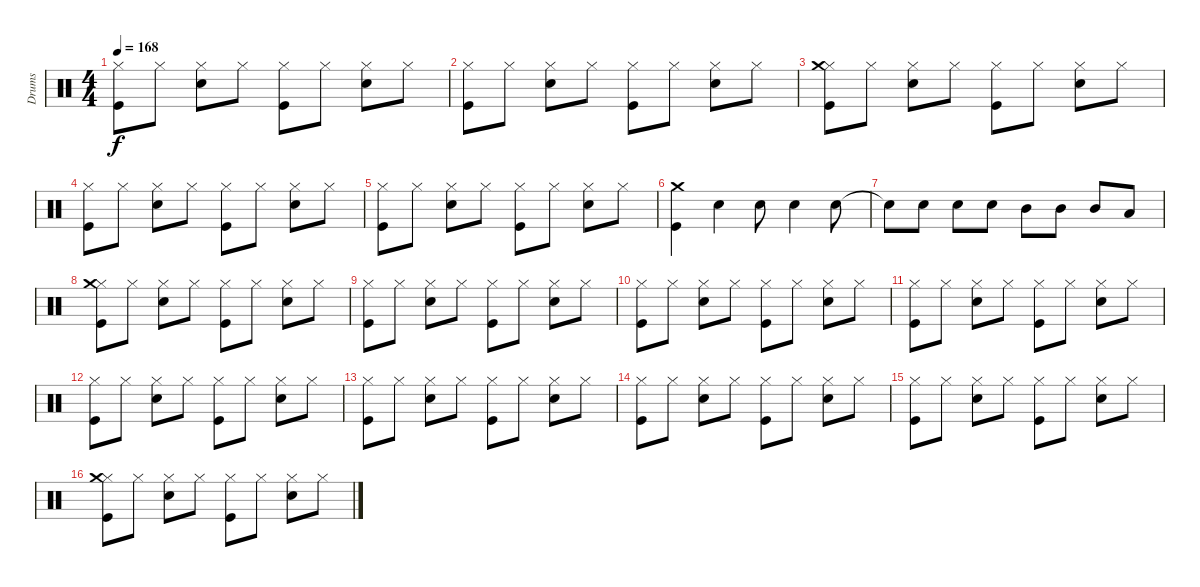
\track ("Drums" "Drums") {instrument percussion}
\staff {score}
\articulation defaults
\ts (4 4)
\tempo 168
\clef neutral
\ks c
("Kick (hit)" "Hi-Hat (closed)").8{dy f} "Hi-Hat (closed)".8 ("Snare (hit) 2" "Hi-Hat (closed)").8 "Hi-Hat (closed)".8 ("Kick (hit)" "Hi-Hat (closed)").8 "Hi-Hat (closed)".8 ("Snare (hit) 2" "Hi-Hat (closed)").8 "Hi-Hat (closed)".8 |
("Kick (hit)" "Hi-Hat (closed)").8 "Hi-Hat (closed)".8 ("Snare (hit) 2" "Hi-Hat (closed)").8 "Hi-Hat (closed)".8 ("Kick (hit)" "Hi-Hat (closed)").8 "Hi-Hat (closed)".8 ("Snare (hit) 2" "Hi-Hat (closed)").8 "Hi-Hat (closed)".8 |
("Kick (hit)" "Hi-Hat (closed)" "Crash medium (hit)").8 "Hi-Hat (closed)".8 ("Snare (hit) 2" "Hi-Hat (closed)").8 "Hi-Hat (closed)".8 ("Kick (hit)" "Hi-Hat (closed)").8 "Hi-Hat (closed)".8 ("Snare (hit) 2" "Hi-Hat (closed)").8 "Hi-Hat (closed)".8 |
("Kick (hit)" "Hi-Hat (closed)").8 "Hi-Hat (closed)".8 ("Snare (hit) 2" "Hi-Hat (closed)").8 "Hi-Hat (closed)".8 ("Kick (hit)" "Hi-Hat (closed)").8 "Hi-Hat (closed)".8 ("Snare (hit) 2" "Hi-Hat (closed)").8 "Hi-Hat (closed)".8 |
("Kick (hit)" "Hi-Hat (closed)").8 "Hi-Hat (closed)".8 ("Snare (hit) 2" "Hi-Hat (closed)").8 "Hi-Hat (closed)".8 ("Kick (hit)" "Hi-Hat (closed)").8 "Hi-Hat (closed)".8 ("Snare (hit) 2" "Hi-Hat (closed)").8 "Hi-Hat (closed)".8 |
("Kick (hit)" "Crash medium (hit)").4 "Snare (hit) 2".4 "Snare (hit) 2".8 "Snare (hit) 2".4 "Snare (hit) 2".8 |
"Snare (hit)"{t}.8 "Snare (hit) 2".8 "Snare (hit) 2".8 "Snare (hit) 2".8 "Mid Tom (hit)".8 "Mid Tom (hit)".8 "Mid Tom (hit)".8 "Low Floor Tom (hit)".8 |
("Kick (hit)" "Hi-Hat (closed)" "Crash medium (hit)").8 "Hi-Hat (closed)".8 ("Snare (hit) 2" "Hi-Hat (closed)").8 "Hi-Hat (closed)".8 ("Kick (hit)" "Hi-Hat (closed)").8 "Hi-Hat (closed)".8 ("Snare (hit) 2" "Hi-Hat (closed)").8 "Hi-Hat (closed)".8 |
("Kick (hit)" "Hi-Hat (closed)").8 "Hi-Hat (closed)".8 ("Snare (hit) 2" "Hi-Hat (closed)").8 "Hi-Hat (closed)".8 ("Kick (hit)" "Hi-Hat (closed)").8 "Hi-Hat (closed)".8 ("Snare (hit) 2" "Hi-Hat (closed)").8 "Hi-Hat (closed)".8 |
("Kick (hit)" "Hi-Hat (closed)").8 "Hi-Hat (closed)".8 ("Snare (hit) 2" "Hi-Hat (closed)").8 "Hi-Hat (closed)".8 ("Kick (hit)" "Hi-Hat (closed)").8 "Hi-Hat (closed)".8 ("Snare (hit) 2" "Hi-Hat (closed)").8 "Hi-Hat (closed)".8 |
("Kick (hit)" "Hi-Hat (closed)").8 "Hi-Hat (closed)".8 ("Snare (hit) 2" "Hi-Hat (closed)").8 "Hi-Hat (closed)".8 ("Kick (hit)" "Hi-Hat (closed)").8 "Hi-Hat (closed)".8 ("Snare (hit) 2" "Hi-Hat (closed)").8 "Hi-Hat (closed)".8 |
("Kick (hit)" "Hi-Hat (closed)").8 "Hi-Hat (closed)".8 ("Snare (hit) 2" "Hi-Hat (closed)").8 "Hi-Hat (closed)".8 ("Kick (hit)" "Hi-Hat (closed)").8 "Hi-Hat (closed)".8 ("Snare (hit) 2" "Hi-Hat (closed)").8 "Hi-Hat (closed)".8 |
("Kick (hit)" "Hi-Hat (closed)").8 "Hi-Hat (closed)".8 ("Snare (hit) 2" "Hi-Hat (closed)").8 "Hi-Hat (closed)".8 ("Kick (hit)" "Hi-Hat (closed)").8 "Hi-Hat (closed)".8 ("Snare (hit) 2" "Hi-Hat (closed)").8 "Hi-Hat (closed)".8 |
("Kick (hit)" "Hi-Hat (closed)").8 "Hi-Hat (closed)".8 ("Snare (hit) 2" "Hi-Hat (closed)").8 "Hi-Hat (closed)".8 ("Kick (hit)" "Hi-Hat (closed)").8 "Hi-Hat (closed)".8 ("Snare (hit) 2" "Hi-Hat (closed)").8 "Hi-Hat (closed)".8 |
("Kick (hit)" "Hi-Hat (closed)").8 "Hi-Hat (closed)".8 ("Snare (hit) 2" "Hi-Hat (closed)").8 "Hi-Hat (closed)".8 ("Kick (hit)" "Hi-Hat (closed)").8 "Hi-Hat (closed)".8 ("Snare (hit) 2" "Hi-Hat (closed)").8 "Hi-Hat (closed)".8 |
("Kick (hit)" "Hi-Hat (closed)" "Crash medium (hit)").8 "Hi-Hat (closed)".8 ("Snare (hit) 2" "Hi-Hat (closed)").8 "Hi-Hat (closed)".8 ("Kick (hit)" "Hi-Hat (closed)").8 "Hi-Hat (closed)".8 ("Snare (hit) 2" "Hi-Hat (closed)").8 "Hi-Hat (closed)".8
